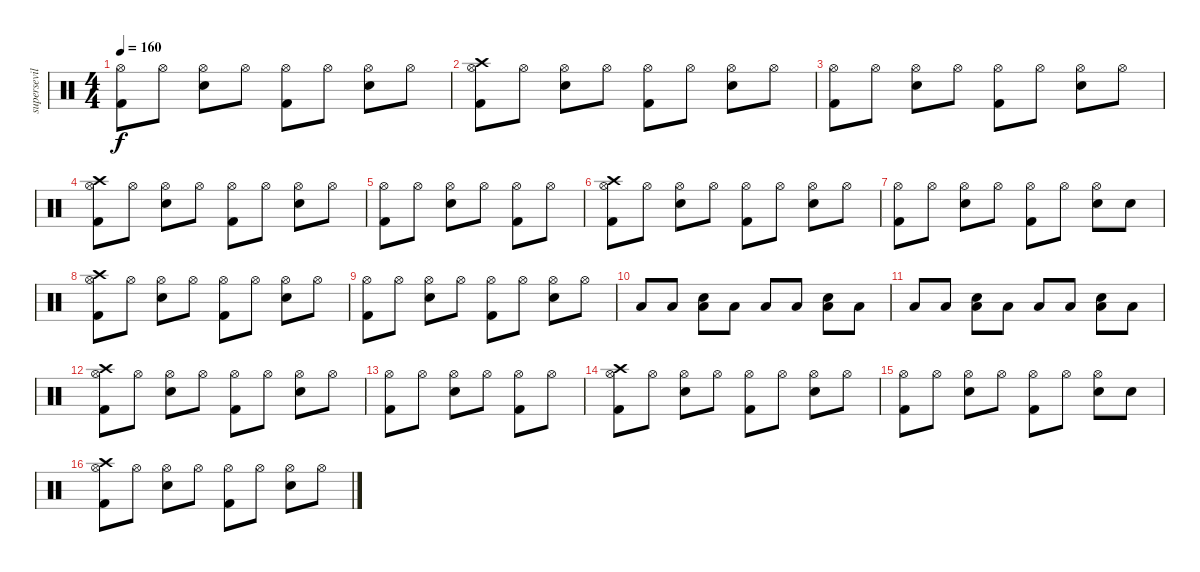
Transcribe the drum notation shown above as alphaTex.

\track ("supersevilla" "supersevil") {instrument percussion}
\staff {score}
\articulation defaults
\ts (4 4)
\tempo 160
\clef neutral
\ks c
("Hi-Hat (open)" "Kick (hit) 2").8{dy f} "Hi-Hat (open)".8 ("Hi-Hat (open)" "Electric Snare (hit)").8 "Hi-Hat (open)".8 ("Hi-Hat (open)" "Kick (hit) 2").8 "Hi-Hat (open)".8 ("Hi-Hat (open)" "Electric Snare (hit)").8 "Hi-Hat (open)".8 |
("Hi-Hat (open)" "Kick (hit) 2" "Crash high (hit)").8 "Hi-Hat (open)".8 ("Hi-Hat (open)" "Electric Snare (hit)").8 "Hi-Hat (open)".8 ("Hi-Hat (open)" "Kick (hit) 2").8 "Hi-Hat (open)".8 ("Hi-Hat (open)" "Electric Snare (hit)").8 "Hi-Hat (open)".8 |
("Hi-Hat (open)" "Kick (hit) 2").8 "Hi-Hat (open)".8 ("Hi-Hat (open)" "Electric Snare (hit)").8 "Hi-Hat (open)".8 ("Hi-Hat (open)" "Kick (hit) 2").8 "Hi-Hat (open)".8 ("Hi-Hat (open)" "Electric Snare (hit)").8 "Hi-Hat (open)".8 |
("Hi-Hat (open)" "Kick (hit) 2" "Crash high (hit)").8 "Hi-Hat (open)".8 ("Hi-Hat (open)" "Electric Snare (hit)").8 "Hi-Hat (open)".8 ("Hi-Hat (open)" "Kick (hit) 2").8 "Hi-Hat (open)".8 ("Hi-Hat (open)" "Electric Snare (hit)").8 "Hi-Hat (open)".8 |
("Hi-Hat (open)" "Kick (hit) 2").8 "Hi-Hat (open)".8 ("Hi-Hat (open)" "Electric Snare (hit)").8 "Hi-Hat (open)".8 ("Hi-Hat (open)" "Kick (hit) 2").8 "Hi-Hat (open)".8 |
("Hi-Hat (open)" "Kick (hit) 2" "Crash high (hit)").8 "Hi-Hat (open)".8 ("Hi-Hat (open)" "Electric Snare (hit)").8 "Hi-Hat (open)".8 ("Hi-Hat (open)" "Kick (hit) 2").8 "Hi-Hat (open)".8 ("Hi-Hat (open)" "Electric Snare (hit)").8 "Hi-Hat (open)".8 |
("Hi-Hat (open)" "Kick (hit) 2").8 "Hi-Hat (open)".8 ("Hi-Hat (open)" "Electric Snare (hit)").8 "Hi-Hat (open)".8 ("Hi-Hat (open)" "Kick (hit) 2").8 "Hi-Hat (open)".8 ("Hi-Hat (open)" "Electric Snare (hit)").8 "Electric Snare (hit)".8 |
("Hi-Hat (open)" "Kick (hit) 2" "Crash high (hit)").8 "Hi-Hat (open)".8 ("Hi-Hat (open)" "Electric Snare (hit)").8 "Hi-Hat (open)".8 ("Hi-Hat (open)" "Kick (hit) 2").8 "Hi-Hat (open)".8 ("Hi-Hat (open)" "Electric Snare (hit)").8 "Hi-Hat (open)".8 |
("Hi-Hat (open)" "Kick (hit) 2").8 "Hi-Hat (open)".8 ("Hi-Hat (open)" "Electric Snare (hit)").8 "Hi-Hat (open)".8 ("Hi-Hat (open)" "Kick (hit) 2").8 "Hi-Hat (open)".8 ("Hi-Hat (open)" "Electric Snare (hit)").8 "Hi-Hat (open)".8 |
"Low Floor Tom (hit)".8 "Low Floor Tom (hit)".8 ("Low Floor Tom (hit)" "Electric Snare (hit)").8 "Low Floor Tom (hit)".8 "Low Floor Tom (hit)".8 "Low Floor Tom (hit)".8 ("Low Floor Tom (hit)" "Electric Snare (hit)").8 "Low Floor Tom (hit)".8 |
"Low Floor Tom (hit)".8 "Low Floor Tom (hit)".8 ("Low Floor Tom (hit)" "Electric Snare (hit)").8 "Low Floor Tom (hit)".8 "Low Floor Tom (hit)".8 "Low Floor Tom (hit)".8 ("Low Floor Tom (hit)" "Electric Snare (hit)").8 "Low Floor Tom (hit)".8 |
("Hi-Hat (open)" "Kick (hit) 2" "Crash high (hit)").8 "Hi-Hat (open)".8 ("Hi-Hat (open)" "Electric Snare (hit)").8 "Hi-Hat (open)".8 ("Hi-Hat (open)" "Kick (hit) 2").8 "Hi-Hat (open)".8 ("Hi-Hat (open)" "Electric Snare (hit)").8 "Hi-Hat (open)".8 |
("Hi-Hat (open)" "Kick (hit) 2").8 "Hi-Hat (open)".8 ("Hi-Hat (open)" "Electric Snare (hit)").8 "Hi-Hat (open)".8 ("Hi-Hat (open)" "Kick (hit) 2").8 "Hi-Hat (open)".8 |
("Hi-Hat (open)" "Kick (hit) 2" "Crash high (hit)").8 "Hi-Hat (open)".8 ("Hi-Hat (open)" "Electric Snare (hit)").8 "Hi-Hat (open)".8 ("Hi-Hat (open)" "Kick (hit) 2").8 "Hi-Hat (open)".8 ("Hi-Hat (open)" "Electric Snare (hit)").8 "Hi-Hat (open)".8 |
("Hi-Hat (open)" "Kick (hit) 2").8 "Hi-Hat (open)".8 ("Hi-Hat (open)" "Electric Snare (hit)").8 "Hi-Hat (open)".8 ("Hi-Hat (open)" "Kick (hit) 2").8 "Hi-Hat (open)".8 ("Hi-Hat (open)" "Electric Snare (hit)").8 "Electric Snare (hit)".8 |
("Hi-Hat (open)" "Kick (hit) 2" "Crash high (hit)").8 "Hi-Hat (open)".8 ("Hi-Hat (open)" "Electric Snare (hit)").8 "Hi-Hat (open)".8 ("Hi-Hat (open)" "Kick (hit) 2").8 "Hi-Hat (open)".8 ("Hi-Hat (open)" "Electric Snare (hit)").8 "Hi-Hat (open)".8
